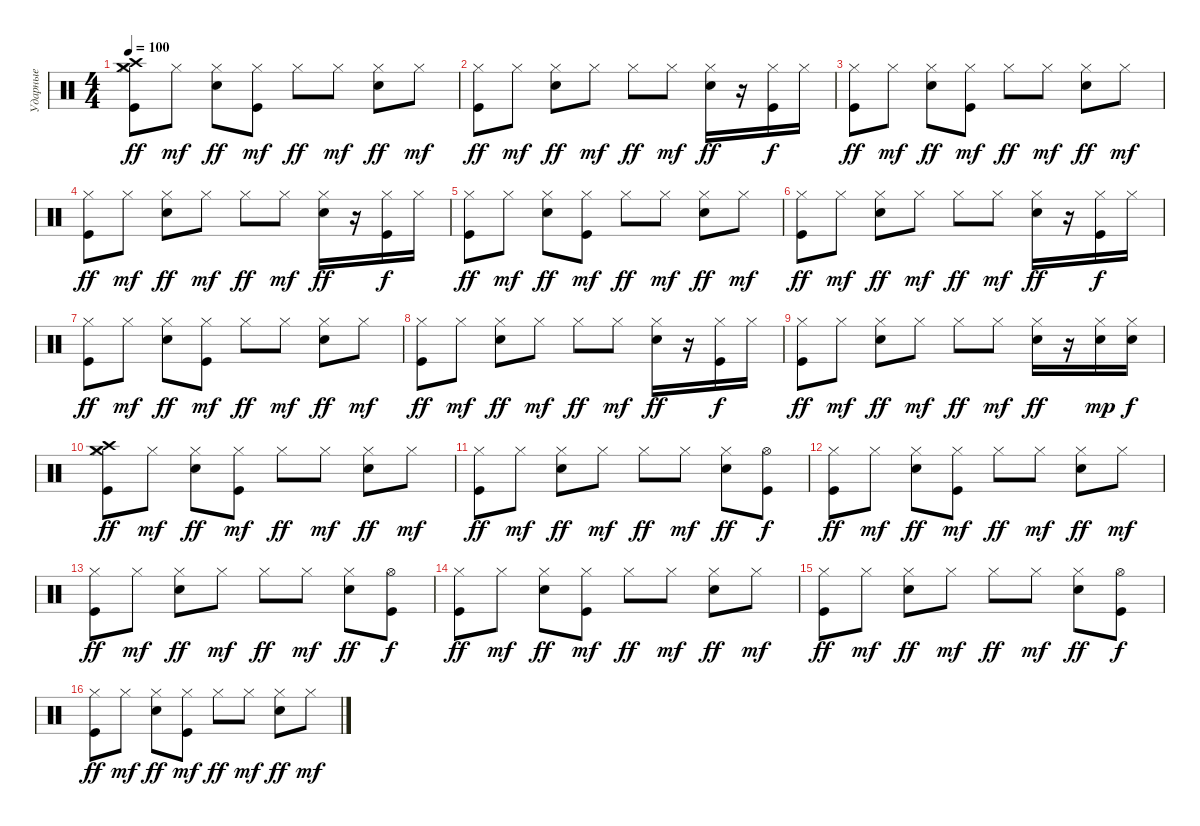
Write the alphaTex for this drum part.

\track ("Ударные" "Ударные") {instrument percussion}
\staff {score}
\articulation defaults
\ts (4 4)
\tempo 100
\clef neutral
\ks c
("Kick (hit)" "Hi-Hat (closed)" "Crash high (hit)" "Crash medium (hit)").8{dy ff} "Hi-Hat (closed)".8{dy mf} ("Electric Snare (hit)" "Hi-Hat (closed)").8{dy ff} ("Kick (hit)" "Hi-Hat (closed)").8{dy mf} "Hi-Hat (closed)".8{dy ff} "Hi-Hat (closed)".8{dy mf} ("Electric Snare (hit)" "Hi-Hat (closed)").8{dy ff} "Hi-Hat (closed)".8{dy mf} |
("Kick (hit)" "Hi-Hat (closed)").8{dy ff} "Hi-Hat (closed)".8{dy mf} ("Electric Snare (hit)" "Hi-Hat (closed)").8{dy ff} "Hi-Hat (closed)".8{dy mf} "Hi-Hat (closed)".8{dy ff} "Hi-Hat (closed)".8{dy mf} ("Electric Snare (hit)" "Hi-Hat (closed)").16{dy ff} r.16 ("Kick (hit)" "Hi-Hat (closed)").16{dy f} "Hi-Hat (closed)".16 |
("Kick (hit)" "Hi-Hat (closed)").8{dy ff} "Hi-Hat (closed)".8{dy mf} ("Electric Snare (hit)" "Hi-Hat (closed)").8{dy ff} ("Kick (hit)" "Hi-Hat (closed)").8{dy mf} "Hi-Hat (closed)".8{dy ff} "Hi-Hat (closed)".8{dy mf} ("Electric Snare (hit)" "Hi-Hat (closed)").8{dy ff} "Hi-Hat (closed)".8{dy mf} |
("Kick (hit)" "Hi-Hat (closed)").8{dy ff} "Hi-Hat (closed)".8{dy mf} ("Electric Snare (hit)" "Hi-Hat (closed)").8{dy ff} "Hi-Hat (closed)".8{dy mf} "Hi-Hat (closed)".8{dy ff} "Hi-Hat (closed)".8{dy mf} ("Electric Snare (hit)" "Hi-Hat (closed)").16{dy ff} r.16 ("Kick (hit)" "Hi-Hat (closed)").16{dy f} "Hi-Hat (closed)".16 |
("Kick (hit)" "Hi-Hat (closed)").8{dy ff} "Hi-Hat (closed)".8{dy mf} ("Electric Snare (hit)" "Hi-Hat (closed)").8{dy ff} ("Kick (hit)" "Hi-Hat (closed)").8{dy mf} "Hi-Hat (closed)".8{dy ff} "Hi-Hat (closed)".8{dy mf} ("Electric Snare (hit)" "Hi-Hat (closed)").8{dy ff} "Hi-Hat (closed)".8{dy mf} |
("Kick (hit)" "Hi-Hat (closed)").8{dy ff} "Hi-Hat (closed)".8{dy mf} ("Electric Snare (hit)" "Hi-Hat (closed)").8{dy ff} "Hi-Hat (closed)".8{dy mf} "Hi-Hat (closed)".8{dy ff} "Hi-Hat (closed)".8{dy mf} ("Electric Snare (hit)" "Hi-Hat (closed)").16{dy ff} r.16 ("Kick (hit)" "Hi-Hat (closed)").16{dy f} "Hi-Hat (closed)".16 |
("Kick (hit)" "Hi-Hat (closed)").8{dy ff} "Hi-Hat (closed)".8{dy mf} ("Electric Snare (hit)" "Hi-Hat (closed)").8{dy ff} ("Kick (hit)" "Hi-Hat (closed)").8{dy mf} "Hi-Hat (closed)".8{dy ff} "Hi-Hat (closed)".8{dy mf} ("Electric Snare (hit)" "Hi-Hat (closed)").8{dy ff} "Hi-Hat (closed)".8{dy mf} |
("Kick (hit)" "Hi-Hat (closed)").8{dy ff} "Hi-Hat (closed)".8{dy mf} ("Electric Snare (hit)" "Hi-Hat (closed)").8{dy ff} "Hi-Hat (closed)".8{dy mf} "Hi-Hat (closed)".8{dy ff} "Hi-Hat (closed)".8{dy mf} ("Electric Snare (hit)" "Hi-Hat (closed)").16{dy ff} r.16 ("Kick (hit)" "Hi-Hat (closed)").16{dy f} "Hi-Hat (closed)".16 |
("Kick (hit)" "Hi-Hat (closed)").8{dy ff} "Hi-Hat (closed)".8{dy mf} ("Electric Snare (hit)" "Hi-Hat (closed)").8{dy ff} "Hi-Hat (closed)".8{dy mf} "Hi-Hat (closed)".8{dy ff} "Hi-Hat (closed)".8{dy mf} ("Electric Snare (hit)" "Hi-Hat (closed)").16{dy ff} r.16 ("Electric Snare (hit)" "Hi-Hat (closed)").16{dy mp} ("Electric Snare (hit)" "Hi-Hat (closed)").16{dy f} |
("Kick (hit)" "Hi-Hat (closed)" "Crash high (hit)" "Crash medium (hit)").8{dy ff} "Hi-Hat (closed)".8{dy mf} ("Electric Snare (hit)" "Hi-Hat (closed)").8{dy ff} ("Kick (hit)" "Hi-Hat (closed)").8{dy mf} "Hi-Hat (closed)".8{dy ff} "Hi-Hat (closed)".8{dy mf} ("Electric Snare (hit)" "Hi-Hat (closed)").8{dy ff} "Hi-Hat (closed)".8{dy mf} |
("Kick (hit)" "Hi-Hat (closed)").8{dy ff} "Hi-Hat (closed)".8{dy mf} ("Electric Snare (hit)" "Hi-Hat (closed)").8{dy ff} "Hi-Hat (closed)".8{dy mf} "Hi-Hat (closed)".8{dy ff} "Hi-Hat (closed)".8{dy mf} ("Electric Snare (hit)" "Hi-Hat (closed)").8{dy ff} ("Kick (hit)" "Hi-Hat (open)").8{dy f} |
("Kick (hit)" "Hi-Hat (closed)").8{dy ff} "Hi-Hat (closed)".8{dy mf} ("Electric Snare (hit)" "Hi-Hat (closed)").8{dy ff} ("Kick (hit)" "Hi-Hat (closed)").8{dy mf} "Hi-Hat (closed)".8{dy ff} "Hi-Hat (closed)".8{dy mf} ("Electric Snare (hit)" "Hi-Hat (closed)").8{dy ff} "Hi-Hat (closed)".8{dy mf} |
("Kick (hit)" "Hi-Hat (closed)").8{dy ff} "Hi-Hat (closed)".8{dy mf} ("Electric Snare (hit)" "Hi-Hat (closed)").8{dy ff} "Hi-Hat (closed)".8{dy mf} "Hi-Hat (closed)".8{dy ff} "Hi-Hat (closed)".8{dy mf} ("Electric Snare (hit)" "Hi-Hat (closed)").8{dy ff} ("Kick (hit)" "Hi-Hat (open)").8{dy f} |
("Kick (hit)" "Hi-Hat (closed)").8{dy ff} "Hi-Hat (closed)".8{dy mf} ("Electric Snare (hit)" "Hi-Hat (closed)").8{dy ff} ("Kick (hit)" "Hi-Hat (closed)").8{dy mf} "Hi-Hat (closed)".8{dy ff} "Hi-Hat (closed)".8{dy mf} ("Electric Snare (hit)" "Hi-Hat (closed)").8{dy ff} "Hi-Hat (closed)".8{dy mf} |
("Kick (hit)" "Hi-Hat (closed)").8{dy ff} "Hi-Hat (closed)".8{dy mf} ("Electric Snare (hit)" "Hi-Hat (closed)").8{dy ff} "Hi-Hat (closed)".8{dy mf} "Hi-Hat (closed)".8{dy ff} "Hi-Hat (closed)".8{dy mf} ("Electric Snare (hit)" "Hi-Hat (closed)").8{dy ff} ("Kick (hit)" "Hi-Hat (open)").8{dy f} |
("Kick (hit)" "Hi-Hat (closed)").8{dy ff} "Hi-Hat (closed)".8{dy mf} ("Electric Snare (hit)" "Hi-Hat (closed)").8{dy ff} ("Kick (hit)" "Hi-Hat (closed)").8{dy mf} "Hi-Hat (closed)".8{dy ff} "Hi-Hat (closed)".8{dy mf} ("Electric Snare (hit)" "Hi-Hat (closed)").8{dy ff} "Hi-Hat (closed)".8{dy mf}
